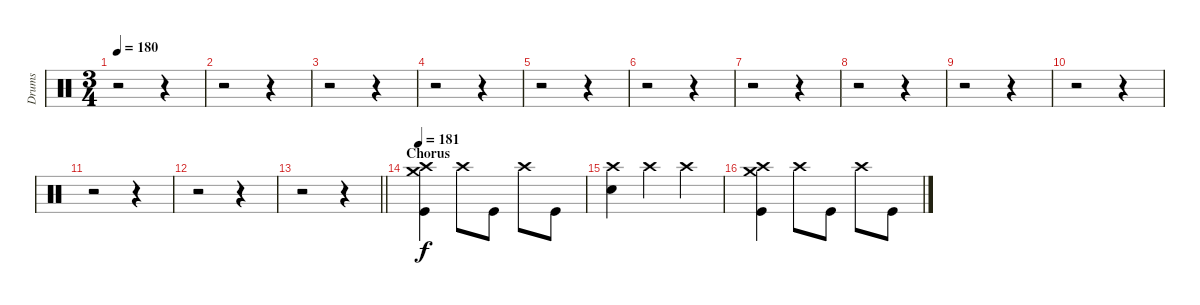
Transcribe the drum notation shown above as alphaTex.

\track ("Drums" "Drums") {instrument percussion}
\staff {score}
\articulation defaults
\ts (3 4)
\tempo 180
\clef neutral
\ks c
r.2{dy f} r.4 |
r.2 r.4 |
r.2 r.4 |
r.2 r.4 |
r.2 r.4 |
r.2 r.4 |
r.2 r.4 |
r.2 r.4 |
r.2 r.4 |
r.2 r.4 |
r.2 r.4 |
r.2 r.4 |
\barLineRight lightlight
r.2 r.4 |
\section ("" "Chorus")
\tempo 181
("Crash high (hit)" "Crash medium (hit)" "Kick (hit)").4 "Crash high (hit)".8 "Kick (hit)".8 "Crash high (hit)".8 "Kick (hit)".8 |
("Crash high (hit)" "Electric Snare (hit)").4 "Crash high (hit)".4 "Crash high (hit)".4 |
("Crash high (hit)" "Crash medium (hit)" "Kick (hit)").4 "Crash high (hit)".8 "Kick (hit)".8 "Crash high (hit)".8 "Kick (hit)".8
